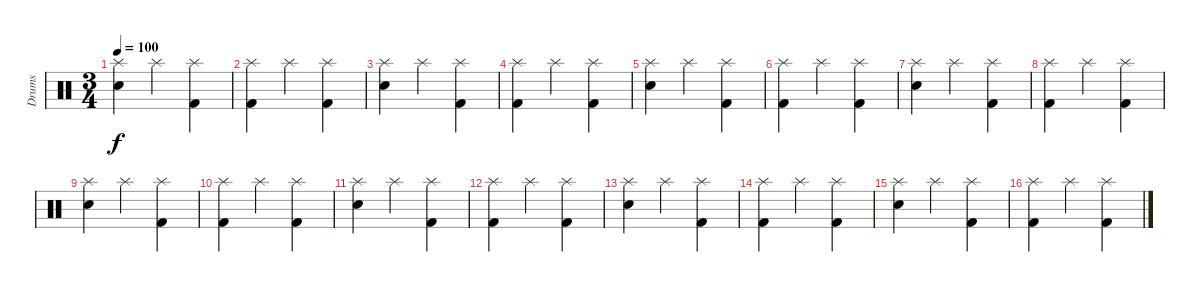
\track ("Drums" "Drums") {instrument percussion}
\staff {score}
\articulation defaults
\ts (3 4)
\tempo 100
\clef neutral
\ks c
("Splash (hit)" "Electric Snare (hit)").4{dy f} "Splash (hit)".4 ("Splash (hit)" "Kick (hit) 2").4 |
("Splash (hit)" "Kick (hit) 2").4 "Splash (hit)".4 ("Splash (hit)" "Kick (hit) 2").4 |
("Splash (hit)" "Electric Snare (hit)").4 "Splash (hit)".4 ("Splash (hit)" "Kick (hit) 2").4 |
("Splash (hit)" "Kick (hit) 2").4 "Splash (hit)".4 ("Splash (hit)" "Kick (hit) 2").4 |
("Splash (hit)" "Electric Snare (hit)").4 "Splash (hit)".4 ("Splash (hit)" "Kick (hit) 2").4 |
("Splash (hit)" "Kick (hit) 2").4 "Splash (hit)".4 ("Splash (hit)" "Kick (hit) 2").4 |
("Splash (hit)" "Electric Snare (hit)").4 "Splash (hit)".4 ("Splash (hit)" "Kick (hit) 2").4 |
("Splash (hit)" "Kick (hit) 2").4 "Splash (hit)".4 ("Splash (hit)" "Kick (hit) 2").4 |
("Splash (hit)" "Electric Snare (hit)").4 "Splash (hit)".4 ("Splash (hit)" "Kick (hit) 2").4 |
("Splash (hit)" "Kick (hit) 2").4 "Splash (hit)".4 ("Splash (hit)" "Kick (hit) 2").4 |
("Splash (hit)" "Electric Snare (hit)").4 "Splash (hit)".4 ("Splash (hit)" "Kick (hit) 2").4 |
("Splash (hit)" "Kick (hit) 2").4 "Splash (hit)".4 ("Splash (hit)" "Kick (hit) 2").4 |
("Splash (hit)" "Electric Snare (hit)").4 "Splash (hit)".4 ("Splash (hit)" "Kick (hit) 2").4 |
("Splash (hit)" "Kick (hit) 2").4 "Splash (hit)".4 ("Splash (hit)" "Kick (hit) 2").4 |
("Splash (hit)" "Electric Snare (hit)").4 "Splash (hit)".4 ("Splash (hit)" "Kick (hit) 2").4 |
("Splash (hit)" "Kick (hit) 2").4 "Splash (hit)".4 ("Splash (hit)" "Kick (hit) 2").4
